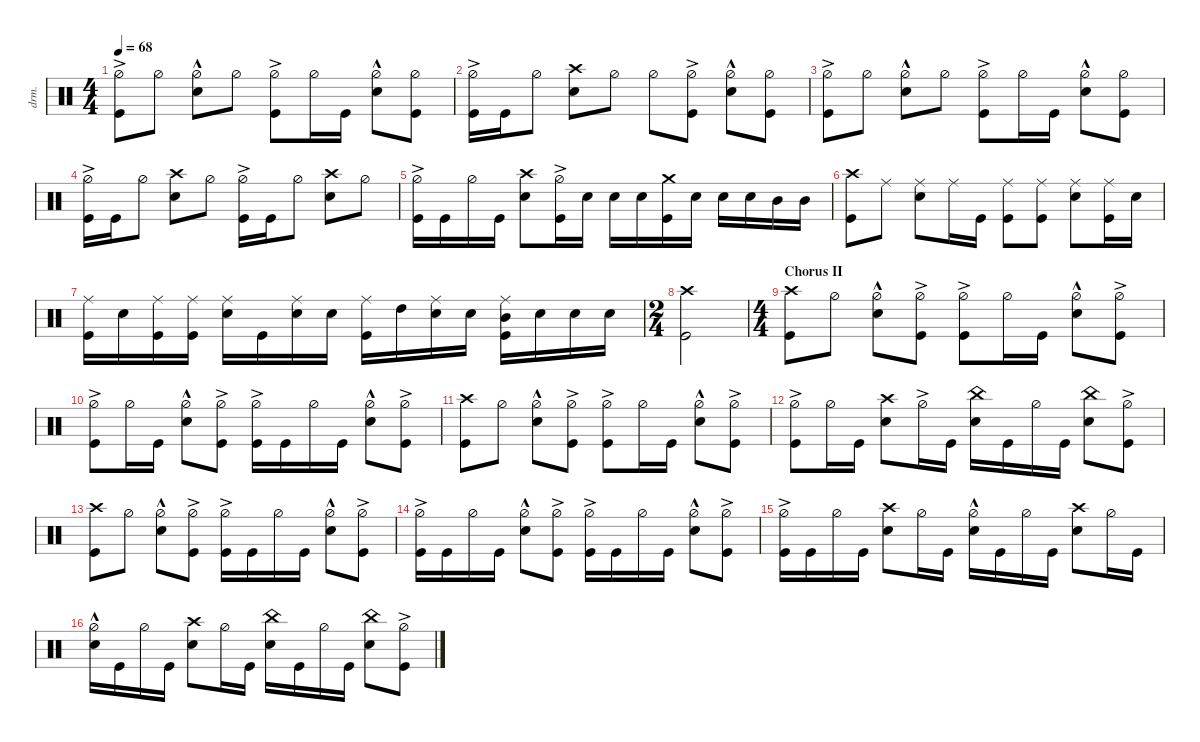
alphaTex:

\defaultSystemsLayout 4
\hideDynamics
\bracketExtendMode nobrackets
\otherSystemsTrackNameOrientation horizontal
\track ("Drums" "drm.") {defaultSystemsLayout 4 instrument percussion}
\staff
\articulation defaults
\ts (4 4)
\tempo 68
\clef neutral
\ks c
("Kick (hit)" "Hi-Hat (half)"{ac}).8{dy f} "Hi-Hat (half)".8 ("Snare (hit) 2" "Hi-Hat (half)"{hac}).8 "Hi-Hat (half)".8 ("Hi-Hat (half)"{ac} "Kick (hit)").8 "Hi-Hat (half)".16 "Kick (hit)".16 ("Snare (hit) 2" "Hi-Hat (half)"{hac}).8 ("Hi-Hat (half)" "Kick (hit)").8 |
("Kick (hit)" "Hi-Hat (half)"{ac}).16 "Kick (hit)".16 "Hi-Hat (half)".8 ("Snare (hit) 2" "Crash high (hit)").8 "Hi-Hat (half)".8 "Hi-Hat (half)".8 ("Hi-Hat (half)"{ac} "Kick (hit)").8 ("Snare (hit) 2" "Hi-Hat (half)"{hac}).8 ("Hi-Hat (half)" "Kick (hit)").8 |
("Kick (hit)" "Hi-Hat (half)"{ac}).8 "Hi-Hat (half)".8 ("Snare (hit) 2" "Hi-Hat (half)"{hac}).8 "Hi-Hat (half)".8 ("Hi-Hat (half)"{ac} "Kick (hit)").8 "Hi-Hat (half)".16 "Kick (hit)".16 ("Snare (hit) 2" "Hi-Hat (half)"{hac}).8 ("Hi-Hat (half)" "Kick (hit)").8 |
("Kick (hit)" "Hi-Hat (half)"{ac}).16 "Kick (hit)".16 "Hi-Hat (half)".8 ("Snare (hit) 2" "Crash high (hit)").8 "Hi-Hat (half)".8 ("Kick (hit)" "Hi-Hat (half)"{ac}).16 "Kick (hit)".16 "Hi-Hat (half)".8 ("Snare (hit) 2" "Crash high (hit)").8 "Hi-Hat (half)".8 |
("Kick (hit)" "Hi-Hat (half)"{ac}).16 "Kick (hit)".16 "Hi-Hat (half)".16 "Kick (hit)".16 ("Snare (hit) 2" "Crash high (hit)").8 ("Kick (hit)" "Hi-Hat (half)"{ac}).16 "Snare (hit) 2".16 "Snare (hit) 2".16 "Snare (hit) 2".16 ("Kick (hit)" "Crash medium (hit)").16 "Snare (hit) 2".16 "Snare (hit) 2".16 "Snare (hit) 2".16 "Mid Tom (hit)".16{dy ff} "Mid Tom (hit)".16 |
("Crash high (hit)" "Kick (hit)").8{dy f} "Ride (middle)".8 ("Snare (hit) 2" "Ride (middle)").8 "Ride (middle)".16 "Kick (hit)".16 ("Kick (hit)" "Ride (middle)").8 ("Kick (hit)" "Ride (middle)").8 ("Snare (hit) 2" "Ride (middle)").8 ("Ride (middle)" "Kick (hit)").16 "Snare (hit) 2".16 |
("Kick (hit)" "Ride (middle)").16 "Snare (hit) 2".16{dy mp} ("Kick (hit)" "Ride (middle)").16{dy f} ("Kick (hit)" "Ride (middle)").16 ("Ride (middle)" "Snare (hit) 2").16{dy mf} "Kick (hit)".16{dy f} ("Ride (middle)" "Snare (hit) 2").16{dy mf} "Snare (hit) 2".16 ("Ride (middle)" "Kick (hit)").16{dy f} "High Tom (hit)".16{dy ff} ("Ride (middle)" "Snare (hit) 2").16{dy mf} "Snare (hit) 2".16 ("Ride (middle)" "Kick (hit)" "Mid Tom (hit)").16 "Snare (hit) 2".16{dy ff} "Snare (hit) 2".16{dy mf} "Snare (hit) 2".16 |
\ts (2 4)
\beaming (8 2 2)
("Crash high (hit)" "Kick (hit)").2{dy f} |
\ts (4 4)
\beaming (8 2 2 2 2)
\section ("" "Chorus II")
("Crash high (hit)" "Kick (hit)").8 "Hi-Hat (half)".8 ("Hi-Hat (half)"{hac} "Snare (hit) 2").8 ("Hi-Hat (half)"{ac} "Kick (hit)").8 ("Hi-Hat (half)"{ac} "Kick (hit)").8 "Hi-Hat (half)".16 "Kick (hit)".16 ("Hi-Hat (half)"{hac} "Snare (hit) 2").8 ("Hi-Hat (half)"{ac} "Kick (hit)").8 |
("Hi-Hat (half)"{ac} "Kick (hit)").8 "Hi-Hat (half)".16 "Kick (hit)".16 ("Hi-Hat (half)"{hac} "Snare (hit) 2").8 ("Hi-Hat (half)"{ac} "Kick (hit)").8 ("Hi-Hat (half)"{ac} "Kick (hit)").16 "Kick (hit)".16 "Hi-Hat (half)".16 "Kick (hit)".16 ("Hi-Hat (half)"{hac} "Snare (hit) 2").8 ("Hi-Hat (half)"{ac} "Kick (hit)").8 |
("Crash high (hit)" "Kick (hit)").8 "Hi-Hat (half)".8 ("Hi-Hat (half)"{hac} "Snare (hit) 2").8 ("Hi-Hat (half)"{ac} "Kick (hit)").8 ("Hi-Hat (half)"{ac} "Kick (hit)").8 "Hi-Hat (half)".16 "Kick (hit)".16 ("Hi-Hat (half)"{hac} "Snare (hit) 2").8 ("Hi-Hat (half)"{ac} "Kick (hit)").8 |
("Hi-Hat (half)"{ac} "Kick (hit)").8 "Hi-Hat (half)".16 "Kick (hit)".16 ("Snare (hit) 2" "Crash high (hit)").8 "Hi-Hat (half)"{ac}.16 "Kick (hit)".16 ("Snare (hit) 2" "China (hit)").16 "Kick (hit)".16 "Hi-Hat (half)".16 "Kick (hit)".16 ("Snare (hit) 2" "China (hit)").8 ("Kick (hit)" "Hi-Hat (half)"{ac}).8 |
("Crash high (hit)" "Kick (hit)").8 "Hi-Hat (half)".8 ("Hi-Hat (half)"{hac} "Snare (hit) 2").8 ("Hi-Hat (half)"{ac} "Kick (hit)").8 ("Hi-Hat (half)"{ac} "Kick (hit)").16 "Kick (hit)".16 "Hi-Hat (half)".16 "Kick (hit)".16 ("Hi-Hat (half)"{hac} "Snare (hit) 2").8 ("Hi-Hat (half)"{ac} "Kick (hit)").8 |
("Hi-Hat (half)"{ac} "Kick (hit)").16 "Kick (hit)".16 "Hi-Hat (half)".16 "Kick (hit)".16 ("Hi-Hat (half)"{hac} "Snare (hit) 2").8 ("Hi-Hat (half)"{ac} "Kick (hit)").8 ("Hi-Hat (half)"{ac} "Kick (hit)").16 "Kick (hit)".16 "Hi-Hat (half)".16 "Kick (hit)".16 ("Hi-Hat (half)"{hac} "Snare (hit) 2").8 ("Hi-Hat (half)"{ac} "Kick (hit)").8 |
("Kick (hit)" "Hi-Hat (half)"{ac}).16 "Kick (hit)".16 "Hi-Hat (half)".16 "Kick (hit)".16 ("Snare (hit) 2" "Crash high (hit)").8 "Hi-Hat (half)".16 "Kick (hit)".16 ("Hi-Hat (half)"{hac} "Snare (hit) 2").16 "Kick (hit)".16 "Hi-Hat (half)".16 "Kick (hit)".16 ("Snare (hit) 2" "Crash high (hit)").8 "Hi-Hat (half)".16 "Kick (hit)".16 |
("Hi-Hat (half)"{hac} "Snare (hit) 2").16 "Kick (hit)".16 "Hi-Hat (half)".16 "Kick (hit)".16 ("Snare (hit) 2" "Crash high (hit)").8 "Hi-Hat (half)".16 "Kick (hit)".16 ("Snare (hit) 2" "China (hit)").16 "Kick (hit)".16 "Hi-Hat (half)".16 "Kick (hit)".16 ("Snare (hit) 2" "China (hit)").8 ("Kick (hit)" "Hi-Hat (half)"{ac}).8
